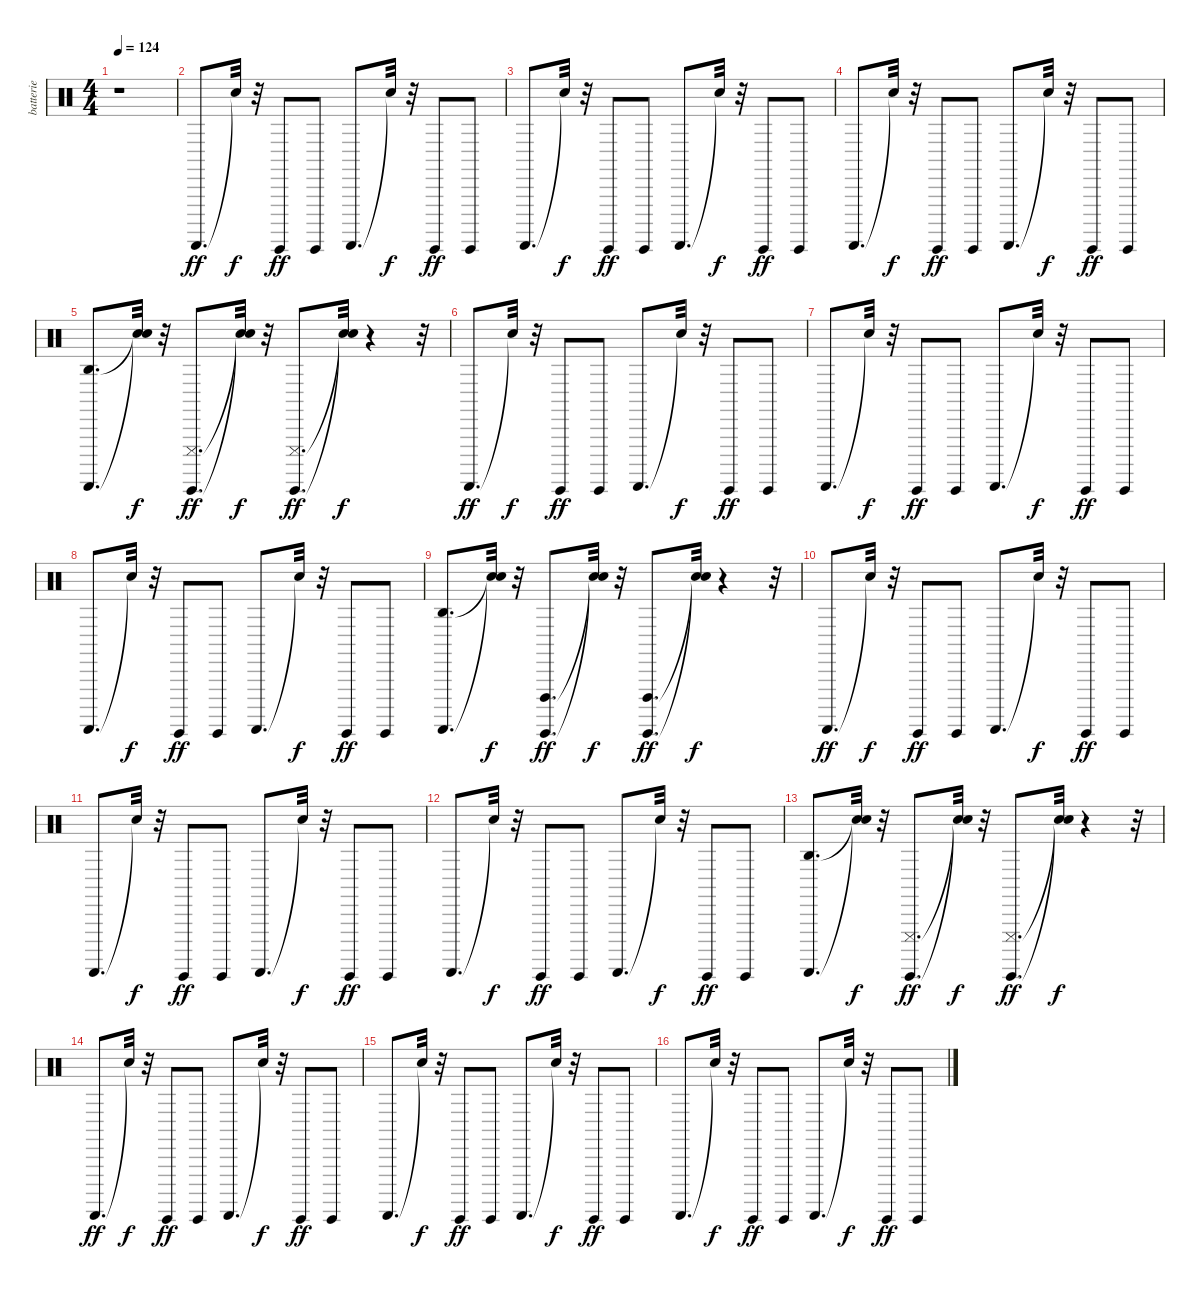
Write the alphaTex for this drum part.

\track ("batterie" "batterie") {instrument percussion}
\staff {score}
\articulation defaults
\ts (4 4)
\tempo 124
\clef neutral
\ks c
r.1{dy ff} |
"Guiro (scrap-return)".8{d} "Snare (hit)"{t}.32{dy f} r.32 "Guiro (hit)".8{dy ff} "Guiro (hit)".8 "Guiro (scrap-return)".8{d} "Snare (hit)"{t}.32{dy f} r.32 "Guiro (hit)".8{dy ff} "Guiro (hit)".8 |
"Guiro (scrap-return)".8{d} "Snare (hit)"{t}.32{dy f} r.32 "Guiro (hit)".8{dy ff} "Guiro (hit)".8 "Guiro (scrap-return)".8{d} "Snare (hit)"{t}.32{dy f} r.32 "Guiro (hit)".8{dy ff} "Guiro (hit)".8 |
"Guiro (scrap-return)".8{d} "Snare (hit)"{t}.32{dy f} r.32 "Guiro (hit)".8{dy ff} "Guiro (hit)".8 "Guiro (scrap-return)".8{d} "Snare (hit)"{t}.32{dy f} r.32 "Guiro (hit)".8{dy ff} "Guiro (hit)".8 |
("Agogo high (hit)" "Guiro (scrap-return)").8{d} ("Snare (hit)"{t} "Snare (hit)"{t}).32{dy f} r.32 ("Guiro (hit)" "Cuica (mute)").8{d dy ff} ("Snare (hit)"{t} "Snare (hit)"{t}).32{dy f} r.32 ("Guiro (hit)" "Cuica (mute)").8{d dy ff} ("Snare (hit)"{t} "Snare (hit)"{t}).32{dy f} r.4 r.32 |
"Guiro (scrap-return)".8{d dy ff} "Snare (hit)"{t}.32{dy f} r.32 "Guiro (hit)".8{dy ff} "Guiro (hit)".8 "Guiro (scrap-return)".8{d} "Snare (hit)"{t}.32{dy f} r.32 "Guiro (hit)".8{dy ff} "Guiro (hit)".8 |
"Guiro (scrap-return)".8{d} "Snare (hit)"{t}.32{dy f} r.32 "Guiro (hit)".8{dy ff} "Guiro (hit)".8 "Guiro (scrap-return)".8{d} "Snare (hit)"{t}.32{dy f} r.32 "Guiro (hit)".8{dy ff} "Guiro (hit)".8 |
"Guiro (scrap-return)".8{d} "Snare (hit)"{t}.32{dy f} r.32 "Guiro (hit)".8{dy ff} "Guiro (hit)".8 "Guiro (scrap-return)".8{d} "Snare (hit)"{t}.32{dy f} r.32 "Guiro (hit)".8{dy ff} "Guiro (hit)".8 |
("Agogo high (hit)" "Guiro (scrap-return)").8{d} ("Snare (hit)"{t} "Snare (hit)"{t}).32{dy f} r.32 ("Guiro (hit)" "Cuica (open)").8{d dy ff} ("Snare (hit)"{t} "Snare (hit)"{t}).32{dy f} r.32 ("Guiro (hit)" "Cuica (open)").8{d dy ff} ("Snare (hit)"{t} "Snare (hit)"{t}).32{dy f} r.4 r.32 |
"Guiro (scrap-return)".8{d dy ff} "Snare (hit)"{t}.32{dy f} r.32 "Guiro (hit)".8{dy ff} "Guiro (hit)".8 "Guiro (scrap-return)".8{d} "Snare (hit)"{t}.32{dy f} r.32 "Guiro (hit)".8{dy ff} "Guiro (hit)".8 |
"Guiro (scrap-return)".8{d} "Snare (hit)"{t}.32{dy f} r.32 "Guiro (hit)".8{dy ff} "Guiro (hit)".8 "Guiro (scrap-return)".8{d} "Snare (hit)"{t}.32{dy f} r.32 "Guiro (hit)".8{dy ff} "Guiro (hit)".8 |
"Guiro (scrap-return)".8{d} "Snare (hit)"{t}.32{dy f} r.32 "Guiro (hit)".8{dy ff} "Guiro (hit)".8 "Guiro (scrap-return)".8{d} "Snare (hit)"{t}.32{dy f} r.32 "Guiro (hit)".8{dy ff} "Guiro (hit)".8 |
("Agogo high (hit)" "Guiro (scrap-return)").8{d} ("Snare (hit)"{t} "Snare (hit)"{t}).32{dy f} r.32 ("Guiro (hit)" "Cuica (mute)").8{d dy ff} ("Snare (hit)"{t} "Snare (hit)"{t}).32{dy f} r.32 ("Guiro (hit)" "Cuica (mute)").8{d dy ff} ("Snare (hit)"{t} "Snare (hit)"{t}).32{dy f} r.4 r.32 |
"Guiro (scrap-return)".8{d dy ff} "Snare (hit)"{t}.32{dy f} r.32 "Guiro (hit)".8{dy ff} "Guiro (hit)".8 "Guiro (scrap-return)".8{d} "Snare (hit)"{t}.32{dy f} r.32 "Guiro (hit)".8{dy ff} "Guiro (hit)".8 |
"Guiro (scrap-return)".8{d} "Snare (hit)"{t}.32{dy f} r.32 "Guiro (hit)".8{dy ff} "Guiro (hit)".8 "Guiro (scrap-return)".8{d} "Snare (hit)"{t}.32{dy f} r.32 "Guiro (hit)".8{dy ff} "Guiro (hit)".8 |
"Guiro (scrap-return)".8{d} "Snare (hit)"{t}.32{dy f} r.32 "Guiro (hit)".8{dy ff} "Guiro (hit)".8 "Guiro (scrap-return)".8{d} "Snare (hit)"{t}.32{dy f} r.32 "Guiro (hit)".8{dy ff} "Guiro (hit)".8
